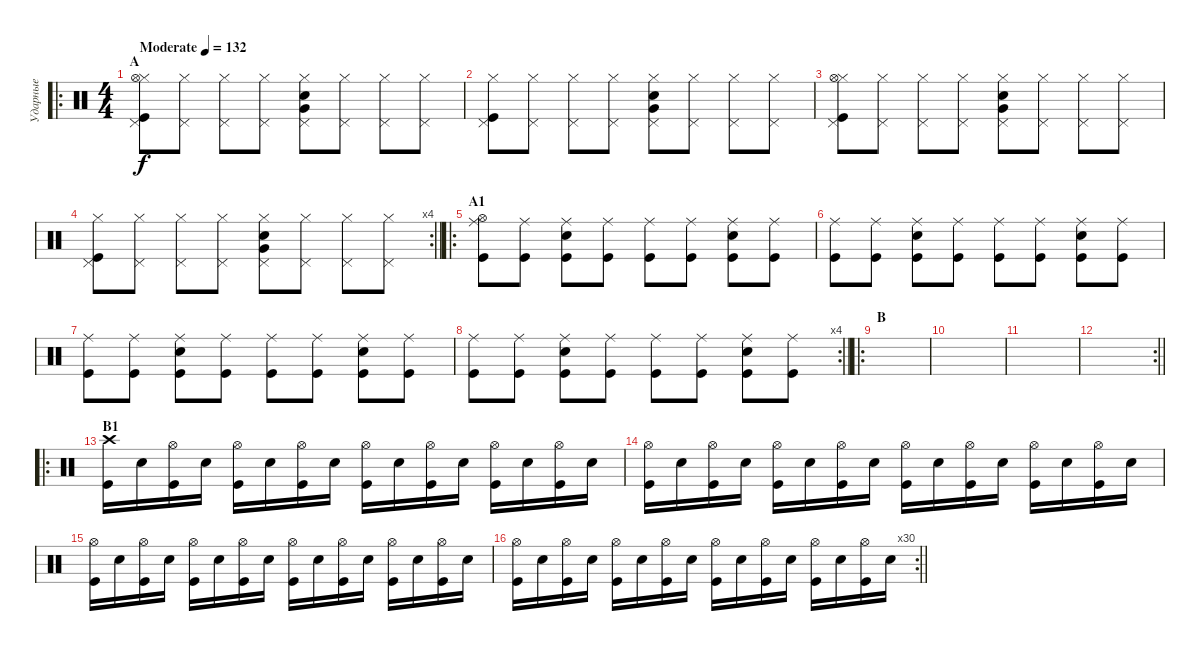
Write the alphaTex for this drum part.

\track ("Ударные" "Ударные") {instrument percussion}
\staff {score}
\articulation defaults
\ro
\ts (4 4)
\section ("" "A")
\tempo (132 "Moderate")
\clef neutral
\ks c
("Pedal Hi-Hat (hit)" "Hi-Hat (closed)" "Hi-Hat (open)" "Kick (hit)").8{dy f} ("Pedal Hi-Hat (hit)" "Hi-Hat (closed)").8 ("Pedal Hi-Hat (hit)" "Hi-Hat (closed)").8 ("Pedal Hi-Hat (hit)" "Hi-Hat (closed)").8 ("Pedal Hi-Hat (hit)" "Hi-Hat (closed)" "Electric Snare (hit)" "Very Low Tom (hit)").8 ("Pedal Hi-Hat (hit)" "Hi-Hat (closed)").8 ("Pedal Hi-Hat (hit)" "Hi-Hat (closed)").8 ("Pedal Hi-Hat (hit)" "Hi-Hat (closed)").8 |
("Pedal Hi-Hat (hit)" "Hi-Hat (closed)" "Kick (hit)").8 ("Pedal Hi-Hat (hit)" "Hi-Hat (closed)").8 ("Pedal Hi-Hat (hit)" "Hi-Hat (closed)").8 ("Pedal Hi-Hat (hit)" "Hi-Hat (closed)").8 ("Pedal Hi-Hat (hit)" "Hi-Hat (closed)" "Electric Snare (hit)" "Very Low Tom (hit)").8 ("Pedal Hi-Hat (hit)" "Hi-Hat (closed)").8 ("Pedal Hi-Hat (hit)" "Hi-Hat (closed)").8 ("Pedal Hi-Hat (hit)" "Hi-Hat (closed)").8 |
("Pedal Hi-Hat (hit)" "Hi-Hat (closed)" "Hi-Hat (open)" "Kick (hit)").8 ("Pedal Hi-Hat (hit)" "Hi-Hat (closed)").8 ("Pedal Hi-Hat (hit)" "Hi-Hat (closed)").8 ("Pedal Hi-Hat (hit)" "Hi-Hat (closed)").8 ("Pedal Hi-Hat (hit)" "Hi-Hat (closed)" "Electric Snare (hit)" "Very Low Tom (hit)").8 ("Pedal Hi-Hat (hit)" "Hi-Hat (closed)").8 ("Pedal Hi-Hat (hit)" "Hi-Hat (closed)").8 ("Pedal Hi-Hat (hit)" "Hi-Hat (closed)").8 |
\rc 4
\barLineRight lightlight
("Pedal Hi-Hat (hit)" "Hi-Hat (closed)" "Kick (hit)").8 ("Pedal Hi-Hat (hit)" "Hi-Hat (closed)").8 ("Pedal Hi-Hat (hit)" "Hi-Hat (closed)").8 ("Pedal Hi-Hat (hit)" "Hi-Hat (closed)").8 ("Pedal Hi-Hat (hit)" "Hi-Hat (closed)" "Electric Snare (hit)" "Very Low Tom (hit)").8 ("Pedal Hi-Hat (hit)" "Hi-Hat (closed)").8 ("Pedal Hi-Hat (hit)" "Hi-Hat (closed)").8 ("Pedal Hi-Hat (hit)" "Hi-Hat (closed)").8 |
\ro
\section ("" "A1")
("Ride (middle)" "Hi-Hat (open)" "Kick (hit)").8 ("Ride (middle)" "Kick (hit)").8 ("Ride (middle)" "Electric Snare (hit)" "Kick (hit)").8 ("Ride (middle)" "Kick (hit)").8 ("Ride (middle)" "Kick (hit)").8 ("Ride (middle)" "Kick (hit)").8 ("Ride (middle)" "Electric Snare (hit)" "Kick (hit)").8 ("Ride (middle)" "Kick (hit)").8 |
("Ride (middle)" "Kick (hit)").8 ("Ride (middle)" "Kick (hit)").8 ("Ride (middle)" "Electric Snare (hit)" "Kick (hit)").8 ("Ride (middle)" "Kick (hit)").8 ("Ride (middle)" "Kick (hit)").8 ("Ride (middle)" "Kick (hit)").8 ("Ride (middle)" "Electric Snare (hit)" "Kick (hit)").8 ("Ride (middle)" "Kick (hit)").8 |
("Ride (middle)" "Kick (hit)").8 ("Ride (middle)" "Kick (hit)").8 ("Ride (middle)" "Electric Snare (hit)" "Kick (hit)").8 ("Ride (middle)" "Kick (hit)").8 ("Ride (middle)" "Kick (hit)").8 ("Ride (middle)" "Kick (hit)").8 ("Ride (middle)" "Electric Snare (hit)" "Kick (hit)").8 ("Ride (middle)" "Kick (hit)").8 |
\rc 4
\barLineRight lightlight
("Ride (middle)" "Kick (hit)").8 ("Ride (middle)" "Kick (hit)").8 ("Ride (middle)" "Electric Snare (hit)" "Kick (hit)").8 ("Ride (middle)" "Kick (hit)").8 ("Ride (middle)" "Kick (hit)").8 ("Ride (middle)" "Kick (hit)").8 ("Ride (middle)" "Electric Snare (hit)" "Kick (hit)").8 ("Ride (middle)" "Kick (hit)").8 |
\ro
\section ("" "B")
|
|
|
\rc 2
\barLineRight lightlight
|
\ro
\section ("" "B1")
("Crash high (hit)" "Kick (hit)").16 "Electric Snare (hit)".16 ("Hi-Hat (open)" "Kick (hit)").16 "Electric Snare (hit)".16 ("Hi-Hat (open)" "Kick (hit)").16 "Electric Snare (hit)".16 ("Hi-Hat (open)" "Kick (hit)").16 "Electric Snare (hit)".16 ("Hi-Hat (open)" "Kick (hit)").16 "Electric Snare (hit)".16 ("Hi-Hat (open)" "Kick (hit)").16 "Electric Snare (hit)".16 ("Hi-Hat (open)" "Kick (hit)").16 "Electric Snare (hit)".16 ("Hi-Hat (open)" "Kick (hit)").16 "Electric Snare (hit)".16 |
("Hi-Hat (open)" "Kick (hit)").16 "Electric Snare (hit)".16 ("Hi-Hat (open)" "Kick (hit)").16 "Electric Snare (hit)".16 ("Hi-Hat (open)" "Kick (hit)").16 "Electric Snare (hit)".16 ("Hi-Hat (open)" "Kick (hit)").16 "Electric Snare (hit)".16 ("Hi-Hat (open)" "Kick (hit)").16 "Electric Snare (hit)".16 ("Hi-Hat (open)" "Kick (hit)").16 "Electric Snare (hit)".16 ("Hi-Hat (open)" "Kick (hit)").16 "Electric Snare (hit)".16 ("Hi-Hat (open)" "Kick (hit)").16 "Electric Snare (hit)".16 |
("Hi-Hat (open)" "Kick (hit)").16 "Electric Snare (hit)".16 ("Hi-Hat (open)" "Kick (hit)").16 "Electric Snare (hit)".16 ("Hi-Hat (open)" "Kick (hit)").16 "Electric Snare (hit)".16 ("Hi-Hat (open)" "Kick (hit)").16 "Electric Snare (hit)".16 ("Hi-Hat (open)" "Kick (hit)").16 "Electric Snare (hit)".16 ("Hi-Hat (open)" "Kick (hit)").16 "Electric Snare (hit)".16 ("Hi-Hat (open)" "Kick (hit)").16 "Electric Snare (hit)".16 ("Hi-Hat (open)" "Kick (hit)").16 "Electric Snare (hit)".16 |
\rc 30
\barLineRight lightlight
("Hi-Hat (open)" "Kick (hit)").16 "Electric Snare (hit)".16 ("Hi-Hat (open)" "Kick (hit)").16 "Electric Snare (hit)".16 ("Hi-Hat (open)" "Kick (hit)").16 "Electric Snare (hit)".16 ("Hi-Hat (open)" "Kick (hit)").16 "Electric Snare (hit)".16 ("Hi-Hat (open)" "Kick (hit)").16 "Electric Snare (hit)".16 ("Hi-Hat (open)" "Kick (hit)").16 "Electric Snare (hit)".16 ("Hi-Hat (open)" "Kick (hit)").16 "Electric Snare (hit)".16 ("Hi-Hat (open)" "Kick (hit)").16 "Electric Snare (hit)".16
